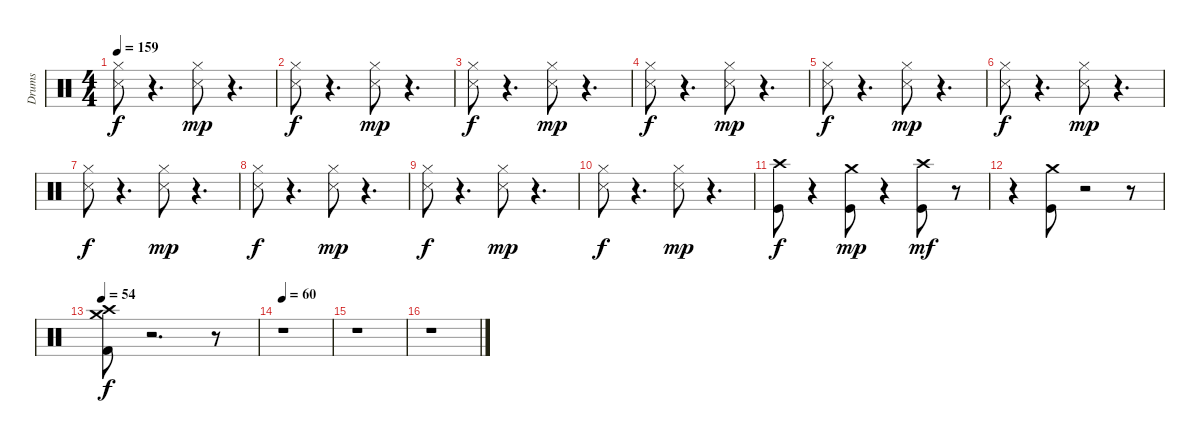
\track ("Drums" "Drums") {instrument percussion}
\staff {score}
\articulation defaults
\ts (4 4)
\tempo 159
\clef neutral
\ks c
("Snare (side stick) 3" "Hi-Hat (closed)").8{dy f} r.4{d} ("Snare (side stick) 3" "Hi-Hat (closed)").8{dy mp} r.4{d} |
("Snare (side stick) 3" "Hi-Hat (closed)").8{dy f} r.4{d} ("Snare (side stick) 3" "Hi-Hat (closed)").8{dy mp} r.4{d} |
("Snare (side stick) 3" "Hi-Hat (closed)").8{dy f} r.4{d} ("Snare (side stick) 3" "Hi-Hat (closed)").8{dy mp} r.4{d} |
("Snare (side stick) 3" "Hi-Hat (closed)").8{dy f} r.4{d} ("Snare (side stick) 3" "Hi-Hat (closed)").8{dy mp} r.4{d} |
("Snare (side stick) 3" "Hi-Hat (closed)").8{dy f} r.4{d} ("Snare (side stick) 3" "Hi-Hat (closed)").8{dy mp} r.4{d} |
("Snare (side stick) 3" "Hi-Hat (closed)").8{dy f} r.4{d} ("Snare (side stick) 3" "Hi-Hat (closed)").8{dy mp} r.4{d} |
("Snare (side stick) 3" "Hi-Hat (closed)").8{dy f} r.4{d} ("Snare (side stick) 3" "Hi-Hat (closed)").8{dy mp} r.4{d} |
("Snare (side stick) 3" "Hi-Hat (closed)").8{dy f} r.4{d} ("Snare (side stick) 3" "Hi-Hat (closed)").8{dy mp} r.4{d} |
("Snare (side stick) 3" "Hi-Hat (closed)").8{dy f} r.4{d} ("Snare (side stick) 3" "Hi-Hat (closed)").8{dy mp} r.4{d} |
("Snare (side stick) 3" "Hi-Hat (closed)").8{dy f} r.4{d} ("Snare (side stick) 3" "Hi-Hat (closed)").8{dy mp} r.4{d} |
("Kick (hit)" "Crash high (hit)").8{dy f} r.4 ("Kick (hit)" "Crash medium (hit)").8{dy mp} r.4 ("Kick (hit)" "Crash high (hit)").8{dy mf} r.8 |
r.4 ("Kick (hit)" "Crash medium (hit)").8 r.2 r.8 |
\tempo 54
("Kick (hit) 2" "Crash high (hit)" "Crash medium (hit)").8{dy f} r.2{d} r.8 |
\tempo 60
r.1 |
r.1 |
r.1
